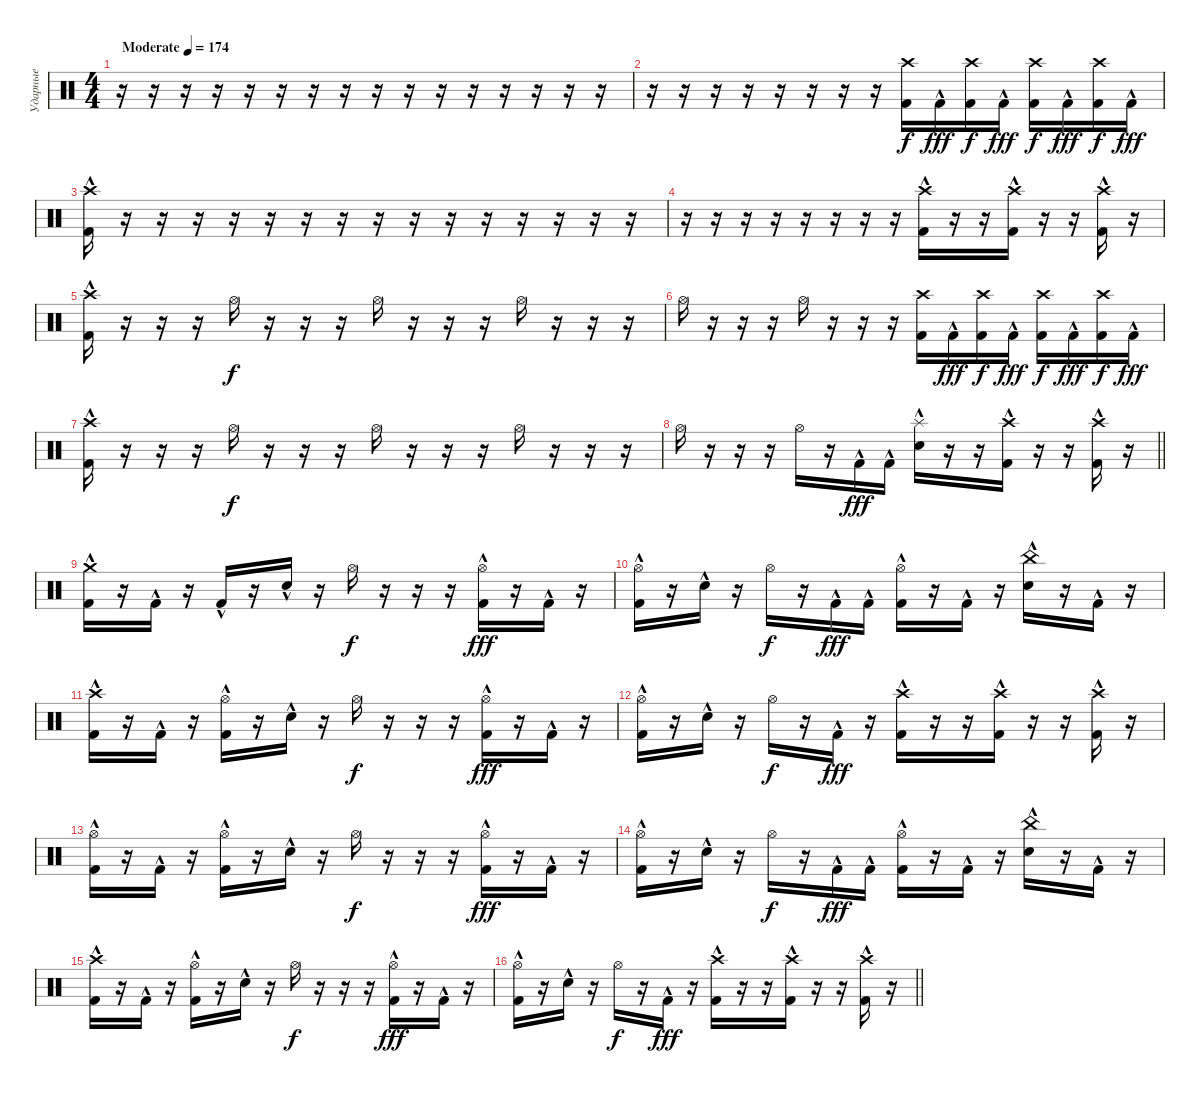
\track ("Ударные" "Ударные") {instrument percussion}
\staff {score}
\articulation defaults
\ts (4 4)
\tempo (174 "Moderate")
\clef neutral
\ks c
r.16{dy f} r.16 r.16 r.16 r.16 r.16 r.16 r.16 r.16 r.16 r.16 r.16 r.16 r.16 r.16 r.16 |
r.16 r.16 r.16 r.16 r.16 r.16 r.16 r.16 ("Kick (hit) 2" "Crash high (hit)").16 "Kick (hit) 2"{hac}.16{dy fff} ("Kick (hit) 2" "Crash high (hit)").16{dy f} "Kick (hit) 2"{hac}.16{dy fff} ("Kick (hit) 2" "Crash high (hit)").16{dy f} "Kick (hit) 2"{hac}.16{dy fff} ("Kick (hit) 2" "Crash high (hit)").16{dy f} "Kick (hit) 2"{hac}.16{dy fff} |
("Kick (hit) 2"{hac} "Crash high (hit)").16 r.16 r.16 r.16 r.16 r.16 r.16 r.16 r.16 r.16 r.16 r.16 r.16 r.16 r.16 r.16 |
r.16 r.16 r.16 r.16 r.16 r.16 r.16 r.16 ("Crash high (hit)" "Kick (hit) 2"{hac}).16 r.16 r.16 ("Kick (hit) 2"{hac} "Crash high (hit)").16 r.16 r.16 ("Kick (hit) 2"{hac} "Crash high (hit)").16 r.16 |
("Kick (hit) 2"{hac} "Crash high (hit)").16 r.16 r.16 r.16 "Hi-Hat (open)".16{dy f} r.16 r.16 r.16 "Hi-Hat (open)".16 r.16 r.16 r.16 "Hi-Hat (open)".16 r.16 r.16 r.16 |
"Hi-Hat (open)".16 r.16 r.16 r.16 "Hi-Hat (open)".16 r.16 r.16 r.16 ("Kick (hit) 2" "Crash high (hit)").16 "Kick (hit) 2"{hac}.16{dy fff} ("Kick (hit) 2" "Crash high (hit)").16{dy f} "Kick (hit) 2"{hac}.16{dy fff} ("Kick (hit) 2" "Crash high (hit)").16{dy f} "Kick (hit) 2"{hac}.16{dy fff} ("Kick (hit) 2" "Crash high (hit)").16{dy f} "Kick (hit) 2"{hac}.16{dy fff} |
("Kick (hit) 2"{hac} "Crash high (hit)").16 r.16 r.16 r.16 "Hi-Hat (open)".16{dy f} r.16 r.16 r.16 "Hi-Hat (open)".16 r.16 r.16 r.16 "Hi-Hat (open)".16 r.16 r.16 r.16 |
\barLineRight lightlight "Hi-Hat (open)".16
r.16 r.16 r.16 "Hi-Hat (open)".16 r.16 "Kick (hit) 2"{hac}.16{dy fff} "Kick (hit) 2"{hac}.16 ("Snare (hit) 2"{hac} "Splash (hit)").16 r.16 r.16 ("Kick (hit) 2"{hac} "Crash high (hit)").16 r.16 r.16 ("Kick (hit) 2"{hac} "Crash high (hit)").16 r.16 |
\section ("" "")
("Kick (hit) 2"{hac} "Crash medium (hit)").16 r.16 "Kick (hit) 2"{hac}.16 r.16 "Kick (hit) 2"{hac}.16 r.16 "Snare (hit) 2"{hac}.16 r.16 "Hi-Hat (open)".16{dy f} r.16 r.16 r.16 ("Hi-Hat (open)" "Kick (hit) 2"{hac}).16{dy fff} r.16 "Kick (hit) 2"{hac}.16 r.16 |
("Kick (hit) 2"{hac} "Hi-Hat (open)").16 r.16 "Snare (hit) 2"{hac}.16 r.16 "Hi-Hat (open)".16{dy f} r.16 "Kick (hit) 2"{hac}.16{dy fff} "Kick (hit) 2"{hac}.16 ("Hi-Hat (open)" "Kick (hit) 2"{hac}).16 r.16 "Kick (hit) 2"{hac}.16 r.16 ("China (hit)" "Snare (hit) 2"{hac}).16 r.16 "Kick (hit) 2"{hac}.16 r.16 |
("Kick (hit) 2"{hac} "Crash high (hit)").16 r.16 "Kick (hit) 2"{hac}.16 r.16 ("Kick (hit) 2"{hac} "Hi-Hat (open)").16 r.16 "Snare (hit) 2"{hac}.16 r.16 "Hi-Hat (open)".16{dy f} r.16 r.16 r.16 ("Hi-Hat (open)" "Kick (hit) 2"{hac}).16{dy fff} r.16 "Kick (hit) 2"{hac}.16 r.16 |
("Kick (hit) 2"{hac} "Hi-Hat (open)").16 r.16 "Snare (hit) 2"{hac}.16 r.16 "Hi-Hat (open)".16{dy f} r.16 "Kick (hit) 2"{hac}.16{dy fff} r.16 ("Crash high (hit)" "Kick (hit) 2"{hac}).16 r.16 r.16 ("Kick (hit) 2"{hac} "Crash high (hit)").16 r.16 r.16 ("Kick (hit) 2"{hac} "Crash high (hit)").16 r.16 |
("Kick (hit) 2"{hac} "Hi-Hat (open)").16 r.16 "Kick (hit) 2"{hac}.16 r.16 ("Kick (hit) 2"{hac} "Hi-Hat (open)").16 r.16 "Snare (hit) 2"{hac}.16 r.16 "Hi-Hat (open)".16{dy f} r.16 r.16 r.16 ("Hi-Hat (open)" "Kick (hit) 2"{hac}).16{dy fff} r.16 "Kick (hit) 2"{hac}.16 r.16 |
("Kick (hit) 2"{hac} "Hi-Hat (open)").16 r.16 "Snare (hit) 2"{hac}.16 r.16 "Hi-Hat (open)".16{dy f} r.16 "Kick (hit) 2"{hac}.16{dy fff} "Kick (hit) 2"{hac}.16 ("Hi-Hat (open)" "Kick (hit) 2"{hac}).16 r.16 "Kick (hit) 2"{hac}.16 r.16 ("China (hit)" "Snare (hit) 2"{hac}).16 r.16 "Kick (hit) 2"{hac}.16 r.16 |
("Kick (hit) 2"{hac} "Crash high (hit)").16 r.16 "Kick (hit) 2"{hac}.16 r.16 ("Kick (hit) 2"{hac} "Hi-Hat (open)").16 r.16 "Snare (hit) 2"{hac}.16 r.16 "Hi-Hat (open)".16{dy f} r.16 r.16 r.16 ("Hi-Hat (open)" "Kick (hit) 2"{hac}).16{dy fff} r.16 "Kick (hit) 2"{hac}.16 r.16 |
\barLineRight lightlight
("Kick (hit) 2"{hac} "Hi-Hat (open)").16 r.16 "Snare (hit) 2"{hac}.16 r.16 "Hi-Hat (open)".16{dy f} r.16 "Kick (hit) 2"{hac}.16{dy fff} r.16 ("Crash high (hit)" "Kick (hit) 2"{hac}).16 r.16 r.16 ("Kick (hit) 2"{hac} "Crash high (hit)").16 r.16 r.16 ("Kick (hit) 2"{hac} "Crash high (hit)").16 r.16
